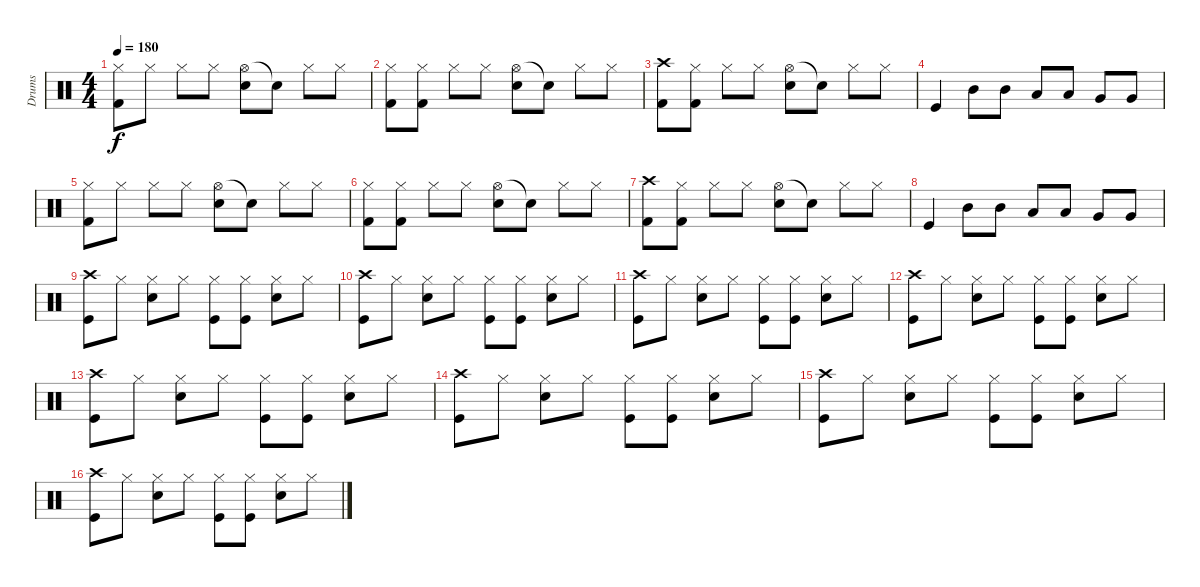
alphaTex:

\track ("Drums" "Drums") {instrument percussion}
\staff {score}
\articulation defaults
\ts (4 4)
\tempo 180
\clef neutral
\ks c
("Hi-Hat (closed)" "Kick (hit) 2").8{dy f} "Hi-Hat (closed)".8 "Hi-Hat (closed)".8 "Hi-Hat (closed)".8 ("Hi-Hat (open)" "Snare (hit) 2").8 "Snare (hit)"{t}.8 "Hi-Hat (closed)".8 "Hi-Hat (closed)".8 |
("Hi-Hat (closed)" "Kick (hit) 2").8 ("Hi-Hat (closed)" "Kick (hit) 2").8 "Hi-Hat (closed)".8 "Hi-Hat (closed)".8 ("Hi-Hat (open)" "Snare (hit) 2").8 "Snare (hit)"{t}.8 "Hi-Hat (closed)".8 "Hi-Hat (closed)".8 |
("Crash high (hit)" "Kick (hit) 2").8 ("Hi-Hat (closed)" "Kick (hit) 2").8 "Hi-Hat (closed)".8 "Hi-Hat (closed)".8 ("Hi-Hat (open)" "Snare (hit) 2").8 "Snare (hit)"{t}.8 "Hi-Hat (closed)".8 "Hi-Hat (closed)".8 |
"Kick (hit)".4 "Mid Tom (hit)".8 "Mid Tom (hit)".8 "Low Tom (hit)".8 "Low Tom (hit)".8 "Very Low Tom (hit)".8 "Very Low Tom (hit)".8 |
("Hi-Hat (closed)" "Kick (hit) 2").8 "Hi-Hat (closed)".8 "Hi-Hat (closed)".8 "Hi-Hat (closed)".8 ("Hi-Hat (open)" "Snare (hit) 2").8 "Snare (hit)"{t}.8 "Hi-Hat (closed)".8 "Hi-Hat (closed)".8 |
("Hi-Hat (closed)" "Kick (hit) 2").8 ("Hi-Hat (closed)" "Kick (hit) 2").8 "Hi-Hat (closed)".8 "Hi-Hat (closed)".8 ("Hi-Hat (open)" "Snare (hit) 2").8 "Snare (hit)"{t}.8 "Hi-Hat (closed)".8 "Hi-Hat (closed)".8 |
("Crash high (hit)" "Kick (hit) 2").8 ("Hi-Hat (closed)" "Kick (hit) 2").8 "Hi-Hat (closed)".8 "Hi-Hat (closed)".8 ("Hi-Hat (open)" "Snare (hit) 2").8 "Snare (hit)"{t}.8 "Hi-Hat (closed)".8 "Hi-Hat (closed)".8 |
"Kick (hit)".4 "Mid Tom (hit)".8 "Mid Tom (hit)".8 "Low Tom (hit)".8 "Low Tom (hit)".8 "Very Low Tom (hit)".8 "Very Low Tom (hit)".8 |
("Crash high (hit)" "Kick (hit)").8 "Hi-Hat (closed)".8 ("Hi-Hat (closed)" "Snare (hit) 2").8 "Hi-Hat (closed)".8 ("Hi-Hat (closed)" "Kick (hit)").8 ("Hi-Hat (closed)" "Kick (hit)").8 ("Hi-Hat (closed)" "Snare (hit) 2").8 "Hi-Hat (closed)".8 |
("Crash high (hit)" "Kick (hit)").8 "Hi-Hat (closed)".8 ("Hi-Hat (closed)" "Snare (hit) 2").8 "Hi-Hat (closed)".8 ("Hi-Hat (closed)" "Kick (hit)").8 ("Hi-Hat (closed)" "Kick (hit)").8 ("Hi-Hat (closed)" "Snare (hit) 2").8 "Hi-Hat (closed)".8 |
("Crash high (hit)" "Kick (hit)").8 "Hi-Hat (closed)".8 ("Hi-Hat (closed)" "Snare (hit) 2").8 "Hi-Hat (closed)".8 ("Hi-Hat (closed)" "Kick (hit)").8 ("Hi-Hat (closed)" "Kick (hit)").8 ("Hi-Hat (closed)" "Snare (hit) 2").8 "Hi-Hat (closed)".8 |
("Crash high (hit)" "Kick (hit)").8 "Hi-Hat (closed)".8 ("Hi-Hat (closed)" "Snare (hit) 2").8 "Hi-Hat (closed)".8 ("Hi-Hat (closed)" "Kick (hit)").8 ("Hi-Hat (closed)" "Kick (hit)").8 ("Hi-Hat (closed)" "Snare (hit) 2").8 "Hi-Hat (closed)".8 |
("Crash high (hit)" "Kick (hit)").8 "Hi-Hat (closed)".8 ("Hi-Hat (closed)" "Snare (hit) 2").8 "Hi-Hat (closed)".8 ("Hi-Hat (closed)" "Kick (hit)").8 ("Hi-Hat (closed)" "Kick (hit)").8 ("Hi-Hat (closed)" "Snare (hit) 2").8 "Hi-Hat (closed)".8 |
("Crash high (hit)" "Kick (hit)").8 "Hi-Hat (closed)".8 ("Hi-Hat (closed)" "Snare (hit) 2").8 "Hi-Hat (closed)".8 ("Hi-Hat (closed)" "Kick (hit)").8 ("Hi-Hat (closed)" "Kick (hit)").8 ("Hi-Hat (closed)" "Snare (hit) 2").8 "Hi-Hat (closed)".8 |
("Crash high (hit)" "Kick (hit)").8 "Hi-Hat (closed)".8 ("Hi-Hat (closed)" "Snare (hit) 2").8 "Hi-Hat (closed)".8 ("Hi-Hat (closed)" "Kick (hit)").8 ("Hi-Hat (closed)" "Kick (hit)").8 ("Hi-Hat (closed)" "Snare (hit) 2").8 "Hi-Hat (closed)".8 |
("Crash high (hit)" "Kick (hit)").8 "Hi-Hat (closed)".8 ("Hi-Hat (closed)" "Snare (hit) 2").8 "Hi-Hat (closed)".8 ("Hi-Hat (closed)" "Kick (hit)").8 ("Hi-Hat (closed)" "Kick (hit)").8 ("Hi-Hat (closed)" "Snare (hit) 2").8 "Hi-Hat (closed)".8
